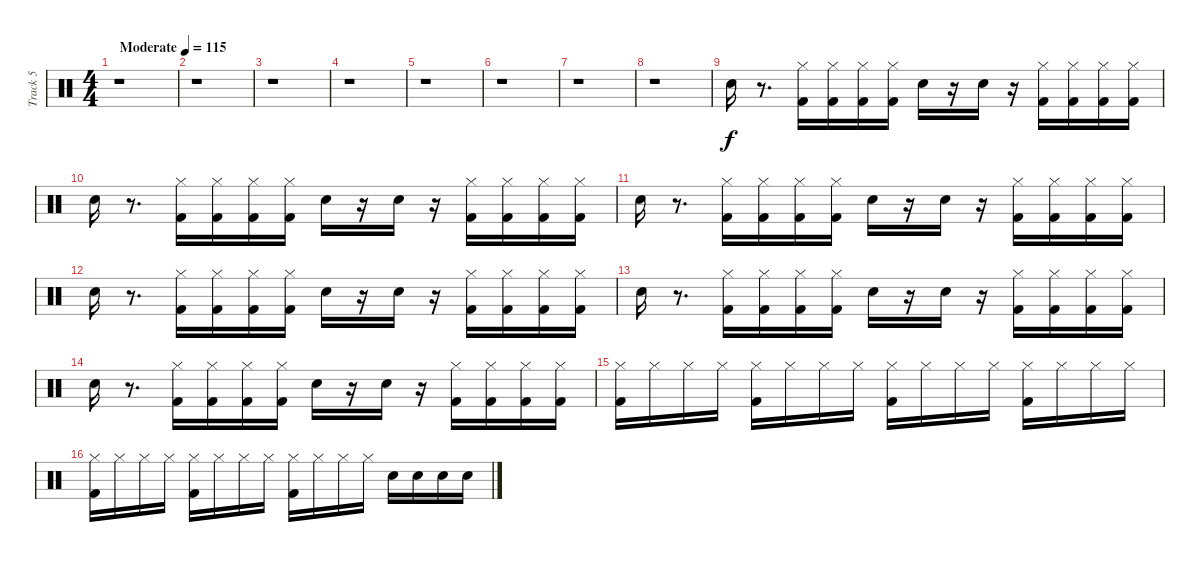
\track ("Track 5" "Track 5") {instrument percussion}
\staff {score}
\articulation defaults
\ts (4 4)
\tempo (115 "Moderate")
\clef neutral
\ks c
r.1{dy f} |
r.1 |
r.1 |
r.1 |
r.1 |
r.1 |
r.1 |
r.1 |
"Snare (hit) 2".16 r.8{d} ("Hi-Hat (closed)" "Kick (hit) 2").16 ("Hi-Hat (closed)" "Kick (hit) 2").16 ("Hi-Hat (closed)" "Kick (hit) 2").16 ("Hi-Hat (closed)" "Kick (hit) 2").16 "Snare (hit) 2".16 r.16 "Snare (hit) 2".16 r.16 ("Hi-Hat (closed)" "Kick (hit) 2").16 ("Hi-Hat (closed)" "Kick (hit) 2").16 ("Hi-Hat (closed)" "Kick (hit) 2").16 ("Hi-Hat (closed)" "Kick (hit) 2").16 |
"Snare (hit) 2".16 r.8{d} ("Hi-Hat (closed)" "Kick (hit) 2").16 ("Hi-Hat (closed)" "Kick (hit) 2").16 ("Hi-Hat (closed)" "Kick (hit) 2").16 ("Hi-Hat (closed)" "Kick (hit) 2").16 "Snare (hit) 2".16 r.16 "Snare (hit) 2".16 r.16 ("Hi-Hat (closed)" "Kick (hit) 2").16 ("Hi-Hat (closed)" "Kick (hit) 2").16 ("Hi-Hat (closed)" "Kick (hit) 2").16 ("Hi-Hat (closed)" "Kick (hit) 2").16 |
"Snare (hit) 2".16 r.8{d} ("Hi-Hat (closed)" "Kick (hit) 2").16 ("Hi-Hat (closed)" "Kick (hit) 2").16 ("Hi-Hat (closed)" "Kick (hit) 2").16 ("Hi-Hat (closed)" "Kick (hit) 2").16 "Snare (hit) 2".16 r.16 "Snare (hit) 2".16 r.16 ("Hi-Hat (closed)" "Kick (hit) 2").16 ("Hi-Hat (closed)" "Kick (hit) 2").16 ("Hi-Hat (closed)" "Kick (hit) 2").16 ("Hi-Hat (closed)" "Kick (hit) 2").16 |
"Snare (hit) 2".16 r.8{d} ("Hi-Hat (closed)" "Kick (hit) 2").16 ("Hi-Hat (closed)" "Kick (hit) 2").16 ("Hi-Hat (closed)" "Kick (hit) 2").16 ("Hi-Hat (closed)" "Kick (hit) 2").16 "Snare (hit) 2".16 r.16 "Snare (hit) 2".16 r.16 ("Hi-Hat (closed)" "Kick (hit) 2").16 ("Hi-Hat (closed)" "Kick (hit) 2").16 ("Hi-Hat (closed)" "Kick (hit) 2").16 ("Hi-Hat (closed)" "Kick (hit) 2").16 |
"Snare (hit) 2".16 r.8{d} ("Hi-Hat (closed)" "Kick (hit) 2").16 ("Hi-Hat (closed)" "Kick (hit) 2").16 ("Hi-Hat (closed)" "Kick (hit) 2").16 ("Hi-Hat (closed)" "Kick (hit) 2").16 "Snare (hit) 2".16 r.16 "Snare (hit) 2".16 r.16 ("Hi-Hat (closed)" "Kick (hit) 2").16 ("Hi-Hat (closed)" "Kick (hit) 2").16 ("Hi-Hat (closed)" "Kick (hit) 2").16 ("Hi-Hat (closed)" "Kick (hit) 2").16 |
"Snare (hit) 2".16 r.8{d} ("Hi-Hat (closed)" "Kick (hit) 2").16 ("Hi-Hat (closed)" "Kick (hit) 2").16 ("Hi-Hat (closed)" "Kick (hit) 2").16 ("Hi-Hat (closed)" "Kick (hit) 2").16 "Snare (hit) 2".16 r.16 "Snare (hit) 2".16 r.16 ("Hi-Hat (closed)" "Kick (hit) 2").16 ("Hi-Hat (closed)" "Kick (hit) 2").16 ("Hi-Hat (closed)" "Kick (hit) 2").16 ("Hi-Hat (closed)" "Kick (hit) 2").16 |
("Hi-Hat (closed)" "Kick (hit) 2").16 "Hi-Hat (closed)".16 "Hi-Hat (closed)".16 "Hi-Hat (closed)".16 ("Hi-Hat (closed)" "Kick (hit) 2").16 "Hi-Hat (closed)".16 "Hi-Hat (closed)".16 "Hi-Hat (closed)".16 ("Hi-Hat (closed)" "Kick (hit) 2").16 "Hi-Hat (closed)".16 "Hi-Hat (closed)".16 "Hi-Hat (closed)".16 ("Hi-Hat (closed)" "Kick (hit) 2").16 "Hi-Hat (closed)".16 "Hi-Hat (closed)".16 "Hi-Hat (closed)".16 |
("Hi-Hat (closed)" "Kick (hit) 2").16 "Hi-Hat (closed)".16 "Hi-Hat (closed)".16 "Hi-Hat (closed)".16 ("Hi-Hat (closed)" "Kick (hit) 2").16 "Hi-Hat (closed)".16 "Hi-Hat (closed)".16 "Hi-Hat (closed)".16 ("Hi-Hat (closed)" "Kick (hit) 2").16 "Hi-Hat (closed)".16 "Hi-Hat (closed)".16 "Hi-Hat (closed)".16 "Snare (hit) 2".16 "Snare (hit) 2".16 "Snare (hit) 2".16 "Snare (hit) 2".16
